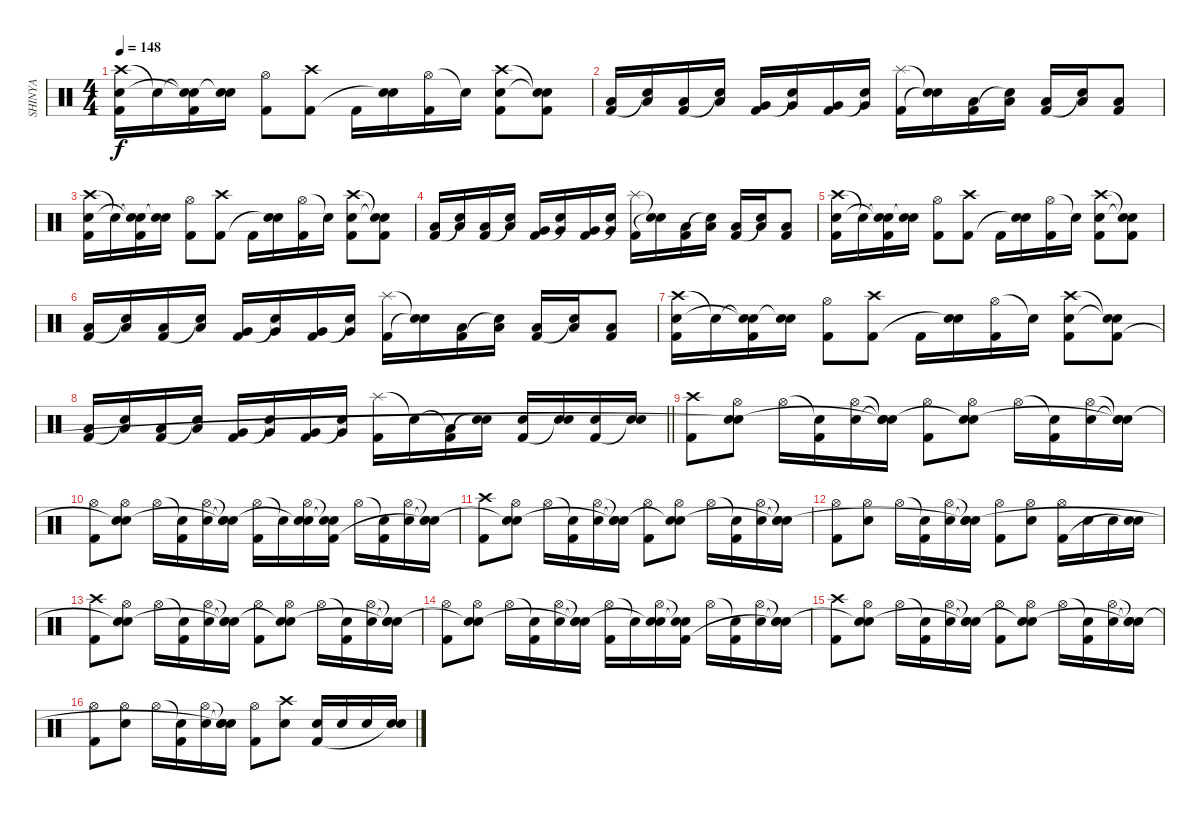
\track ("SHINYA" "SHINYA") {instrument percussion}
\staff {score}
\articulation defaults
\ts (4 4)
\tempo 148
\clef neutral
\ks c
("Crash high (hit)" "Electric Snare (hit)" "Kick (hit) 2").16{dy f} "Snare (hit)"{t}.16 ("Snare (hit)"{t} "Electric Snare (hit)"{t} "Kick (hit) 2").16 ("Electric Snare (hit)" "Snare (hit)"{t}).16 ("Hi-Hat (open)" "Kick (hit) 2").8 ("Crash high (hit)" "Kick (hit) 2").8 "Kick (hit) 2".16 ("Electric Snare (hit)" "Snare (hit)"{t}).16 ("Hi-Hat (open)" "Kick (hit) 2").16 "Snare (hit)"{t}.16 ("Crash high (hit)" "Electric Snare (hit)" "Kick (hit) 2").8 ("Snare (hit)"{t} "Snare (hit)"{t} "Kick (hit) 2").8 |
("Low Tom (hit)" "Kick (hit) 2").16 ("Low Tom (hit)" "Snare (hit)"{t}).16 ("Low Tom (hit)" "Kick (hit) 2").16 ("Low Tom (hit)" "Snare (hit)"{t}).16 ("Very Low Tom (hit)" "Kick (hit) 2").16 ("Very Low Tom (hit)" "Snare (hit)"{t}).16 ("Very Low Tom (hit)" "Kick (hit) 2").16 ("Very Low Tom (hit)" "Snare (hit)"{t}).16 ("Splash (hit)" "Kick (hit) 2").16 ("Snare (hit)"{t} "Snare (hit)"{t}).16 ("Low Floor Tom (hit)" "Kick (hit) 2").16 ("Low Floor Tom (hit)" "Snare (hit)"{t}).16 ("Low Floor Tom (hit)" "Kick (hit) 2").16 ("Low Floor Tom (hit)" "Snare (hit)"{t}).16 ("Low Floor Tom (hit)" "Kick (hit) 2").8 |
("Crash high (hit)" "Electric Snare (hit)" "Kick (hit) 2").16 "Snare (hit)"{t}.16 ("Snare (hit)"{t} "Electric Snare (hit)"{t} "Kick (hit) 2").16 ("Electric Snare (hit)" "Snare (hit)"{t}).16 ("Hi-Hat (open)" "Kick (hit) 2").8 ("Crash high (hit)" "Kick (hit) 2").8 "Kick (hit) 2".16 ("Electric Snare (hit)" "Snare (hit)"{t}).16 ("Hi-Hat (open)" "Kick (hit) 2").16 "Snare (hit)"{t}.16 ("Crash high (hit)" "Electric Snare (hit)" "Kick (hit) 2").8 ("Snare (hit)"{t} "Snare (hit)"{t} "Kick (hit) 2").8 |
("Low Tom (hit)" "Kick (hit) 2").16 ("Low Tom (hit)" "Snare (hit)"{t}).16 ("Low Tom (hit)" "Kick (hit) 2").16 ("Low Tom (hit)" "Snare (hit)"{t}).16 ("Very Low Tom (hit)" "Kick (hit) 2").16 ("Very Low Tom (hit)" "Snare (hit)"{t}).16 ("Very Low Tom (hit)" "Kick (hit) 2").16 ("Very Low Tom (hit)" "Snare (hit)"{t}).16 ("Splash (hit)" "Kick (hit) 2").16 ("Snare (hit)"{t} "Snare (hit)"{t}).16 ("Low Floor Tom (hit)" "Kick (hit) 2").16 ("Low Floor Tom (hit)" "Snare (hit)"{t}).16 ("Low Floor Tom (hit)" "Kick (hit) 2").16 ("Low Floor Tom (hit)" "Snare (hit)"{t}).16 ("Low Floor Tom (hit)" "Kick (hit) 2").8 |
("Crash high (hit)" "Electric Snare (hit)" "Kick (hit) 2").16 "Snare (hit)"{t}.16 ("Snare (hit)"{t} "Electric Snare (hit)"{t} "Kick (hit) 2").16 ("Electric Snare (hit)" "Snare (hit)"{t}).16 ("Hi-Hat (open)" "Kick (hit) 2").8 ("Crash high (hit)" "Kick (hit) 2").8 "Kick (hit) 2".16 ("Electric Snare (hit)" "Snare (hit)"{t}).16 ("Hi-Hat (open)" "Kick (hit) 2").16 "Snare (hit)"{t}.16 ("Crash high (hit)" "Electric Snare (hit)" "Kick (hit) 2").8 ("Snare (hit)"{t} "Snare (hit)"{t} "Kick (hit) 2").8 |
("Low Tom (hit)" "Kick (hit) 2").16 ("Low Tom (hit)" "Snare (hit)"{t}).16 ("Low Tom (hit)" "Kick (hit) 2").16 ("Low Tom (hit)" "Snare (hit)"{t}).16 ("Very Low Tom (hit)" "Kick (hit) 2").16 ("Very Low Tom (hit)" "Snare (hit)"{t}).16 ("Very Low Tom (hit)" "Kick (hit) 2").16 ("Very Low Tom (hit)" "Snare (hit)"{t}).16 ("Splash (hit)" "Kick (hit) 2").16 ("Snare (hit)"{t} "Snare (hit)"{t}).16 ("Low Floor Tom (hit)" "Kick (hit) 2").16 ("Low Floor Tom (hit)" "Snare (hit)"{t}).16 ("Low Floor Tom (hit)" "Kick (hit) 2").16 ("Low Floor Tom (hit)" "Snare (hit)"{t}).16 ("Low Floor Tom (hit)" "Kick (hit) 2").8 |
("Crash high (hit)" "Electric Snare (hit)" "Kick (hit) 2").16 "Snare (hit)"{t}.16 ("Snare (hit)"{t} "Electric Snare (hit)"{t} "Kick (hit) 2").16 ("Electric Snare (hit)" "Snare (hit)"{t}).16 ("Hi-Hat (open)" "Kick (hit) 2").8 ("Crash high (hit)" "Kick (hit) 2").8 "Kick (hit) 2".16 ("Electric Snare (hit)" "Snare (hit)"{t}).16 ("Hi-Hat (open)" "Kick (hit) 2").16 "Snare (hit)"{t}.16 ("Crash high (hit)" "Electric Snare (hit)" "Kick (hit) 2").8 ("Snare (hit)"{t} "Snare (hit)"{t} "Kick (hit) 2").8 |
\barLineRight lightlight
("Low Tom (hit)" "Kick (hit) 2").16 ("Low Tom (hit)" "Snare (hit)"{t}).16 ("Low Tom (hit)" "Kick (hit) 2").16 ("Low Tom (hit)" "Snare (hit)"{t}).16 ("Very Low Tom (hit)" "Kick (hit) 2").16 ("Very Low Tom (hit)" "Snare (hit)"{t}).16 ("Very Low Tom (hit)" "Kick (hit) 2").16 ("Very Low Tom (hit)" "Snare (hit)"{t}).16 ("Splash (hit)" "Kick (hit) 2").16 "Snare (hit)"{t}.16 ("Low Floor Tom (hit)"{t} "Kick (hit) 2").16 ("Electric Snare (hit)" "Snare (hit)"{t}).16 ("Electric Snare (hit)" "Kick (hit) 2").16 ("Electric Snare (hit)" "Snare (hit)"{t}).16 ("Electric Snare (hit)" "Kick (hit) 2").16 ("Electric Snare (hit)" "Snare (hit)"{t}).16 |
("Crash high (hit)" "Kick (hit) 2").8 ("Hi-Hat (open)" "Electric Snare (hit)" "Snare (hit)"{t}).8 "Hi-Hat (open)".16 ("Snare (hit)"{t} "Kick (hit) 2").16 ("Hi-Hat (open)" "Electric Snare (hit)").16 ("Snare (hit)"{t} "Electric Snare (hit)"{t} "Snare (hit)"{t}).16 ("Hi-Hat (open)" "Kick (hit) 2").8 ("Hi-Hat (open)" "Electric Snare (hit)" "Snare (hit)"{t}).8 "Hi-Hat (open)".16 ("Snare (hit)"{t} "Kick (hit) 2").16 ("Hi-Hat (open)" "Electric Snare (hit)").16 ("Snare (hit)"{t} "Electric Snare (hit)"{t} "Snare (hit)"{t}).16 |
("Hi-Hat (open)" "Kick (hit) 2").8 ("Hi-Hat (open)" "Electric Snare (hit)" "Snare (hit)"{t}).8 "Hi-Hat (open)".16 ("Snare (hit)"{t} "Kick (hit) 2").16 ("Hi-Hat (open)" "Electric Snare (hit)").16 ("Snare (hit)"{t} "Electric Snare (hit)"{t} "Snare (hit)"{t}).16 ("Hi-Hat (open)" "Kick (hit) 2").16 "Snare (hit)"{t}.16 ("Hi-Hat (open)" "Electric Snare (hit)" "Snare (hit)"{t}).16 ("Snare (hit)"{t} "Snare (hit)"{t} "Kick (hit) 2").16 "Hi-Hat (open)".16 ("Snare (hit)"{t} "Kick (hit) 2").16 ("Hi-Hat (open)" "Electric Snare (hit)").16 ("Snare (hit)"{t} "Electric Snare (hit)"{t} "Snare (hit)"{t}).16 |
("Crash high (hit)" "Kick (hit) 2").8 ("Hi-Hat (open)" "Electric Snare (hit)" "Snare (hit)"{t}).8 "Hi-Hat (open)".16 ("Snare (hit)"{t} "Kick (hit) 2").16 ("Hi-Hat (open)" "Electric Snare (hit)").16 ("Snare (hit)"{t} "Electric Snare (hit)"{t} "Snare (hit)"{t}).16 ("Hi-Hat (open)" "Kick (hit) 2").8 ("Hi-Hat (open)" "Electric Snare (hit)" "Snare (hit)"{t}).8 "Hi-Hat (open)".16 ("Snare (hit)"{t} "Kick (hit) 2").16 ("Hi-Hat (open)" "Electric Snare (hit)").16 ("Snare (hit)"{t} "Electric Snare (hit)"{t} "Snare (hit)"{t}).16 |
("Hi-Hat (open)" "Kick (hit) 2").8 ("Hi-Hat (open)" "Electric Snare (hit)").8 "Hi-Hat (open)".16 ("Snare (hit)"{t} "Kick (hit) 2").16 ("Hi-Hat (open)" "Electric Snare (hit)").16 ("Snare (hit)"{t} "Electric Snare (hit)"{t} "Snare (hit)"{t}).16 ("Hi-Hat (open)" "Kick (hit) 2").8 ("Hi-Hat (open)" "Electric Snare (hit)").8 ("Hi-Hat (open)" "Kick (hit) 2").16 "Electric Snare (hit)".16 "Electric Snare (hit)".16 ("Electric Snare (hit)" "Snare (hit)"{t}).16 |
("Crash high (hit)" "Kick (hit) 2").8 ("Hi-Hat (open)" "Electric Snare (hit)" "Snare (hit)"{t}).8 "Hi-Hat (open)".16 ("Snare (hit)"{t} "Kick (hit) 2").16 ("Hi-Hat (open)" "Electric Snare (hit)").16 ("Snare (hit)"{t} "Electric Snare (hit)"{t} "Snare (hit)"{t}).16 ("Hi-Hat (open)" "Kick (hit) 2").8 ("Hi-Hat (open)" "Electric Snare (hit)" "Snare (hit)"{t}).8 "Hi-Hat (open)".16 ("Snare (hit)"{t} "Kick (hit) 2").16 ("Hi-Hat (open)" "Electric Snare (hit)").16 ("Snare (hit)"{t} "Electric Snare (hit)"{t} "Snare (hit)"{t}).16 |
("Hi-Hat (open)" "Kick (hit) 2").8 ("Hi-Hat (open)" "Electric Snare (hit)" "Snare (hit)"{t}).8 "Hi-Hat (open)".16 ("Snare (hit)"{t} "Kick (hit) 2").16 ("Hi-Hat (open)" "Electric Snare (hit)").16 ("Snare (hit)"{t} "Electric Snare (hit)"{t} "Snare (hit)"{t}).16 ("Hi-Hat (open)" "Kick (hit) 2").16 "Snare (hit)"{t}.16 ("Hi-Hat (open)" "Electric Snare (hit)" "Snare (hit)"{t}).16 ("Snare (hit)"{t} "Snare (hit)"{t} "Kick (hit) 2").16 "Hi-Hat (open)".16 ("Snare (hit)"{t} "Kick (hit) 2").16 ("Hi-Hat (open)" "Electric Snare (hit)").16 ("Snare (hit)"{t} "Electric Snare (hit)"{t} "Snare (hit)"{t}).16 |
("Crash high (hit)" "Kick (hit) 2").8 ("Hi-Hat (open)" "Electric Snare (hit)" "Snare (hit)"{t}).8 "Hi-Hat (open)".16 ("Snare (hit)"{t} "Kick (hit) 2").16 ("Hi-Hat (open)" "Electric Snare (hit)").16 ("Snare (hit)"{t} "Electric Snare (hit)"{t} "Snare (hit)"{t}).16 ("Hi-Hat (open)" "Kick (hit) 2").8 ("Hi-Hat (open)" "Electric Snare (hit)" "Snare (hit)"{t}).8 "Hi-Hat (open)".16 ("Snare (hit)"{t} "Kick (hit) 2").16 ("Hi-Hat (open)" "Electric Snare (hit)").16 ("Snare (hit)"{t} "Electric Snare (hit)"{t} "Snare (hit)"{t}).16 |
("Hi-Hat (open)" "Kick (hit) 2").8 ("Hi-Hat (open)" "Electric Snare (hit)").8 "Hi-Hat (open)".16 ("Snare (hit)"{t} "Kick (hit) 2").16 ("Hi-Hat (open)" "Electric Snare (hit)").16 ("Snare (hit)"{t} "Electric Snare (hit)"{t} "Snare (hit)"{t}).16 ("Hi-Hat (open)" "Kick (hit) 2").8 ("Crash high (hit)" "Electric Snare (hit)").8 ("Electric Snare (hit)" "Kick (hit) 2").16 "Electric Snare (hit)".16 "Electric Snare (hit)".16 ("Electric Snare (hit)" "Snare (hit)"{t}).16
